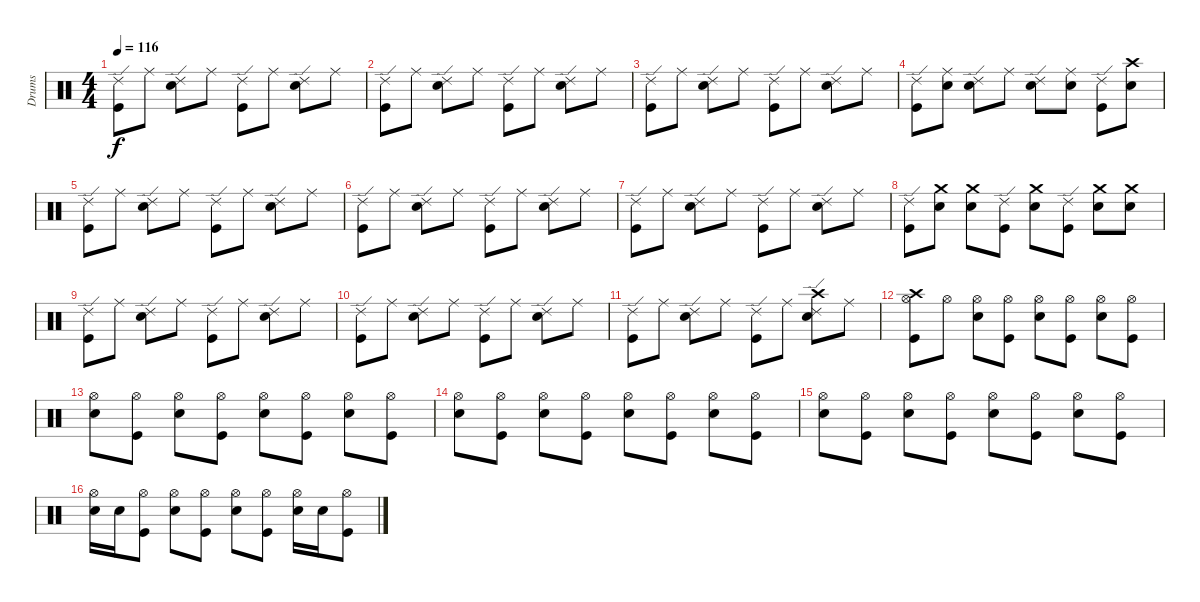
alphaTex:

\track ("Drums" "Drums") {instrument percussion}
\staff {score}
\articulation defaults
\ts (4 4)
\tempo 116
\clef neutral
\ks c
("Ride (edge) 2" "Kick (hit)").8{dy f} "Ride (middle)".8 ("Ride (edge) 2" "Electric Snare (hit)").8 "Ride (middle)".8 ("Ride (edge) 2" "Kick (hit)").8 "Ride (middle)".8 ("Ride (edge) 2" "Electric Snare (hit)").8 "Ride (middle)".8 |
("Ride (edge) 2" "Kick (hit)").8 "Ride (middle)".8 ("Ride (edge) 2" "Electric Snare (hit)").8 "Ride (middle)".8 ("Ride (edge) 2" "Kick (hit)").8 "Ride (middle)".8 ("Ride (edge) 2" "Electric Snare (hit)").8 "Ride (middle)".8 |
("Ride (edge) 2" "Kick (hit)").8 "Ride (middle)".8 ("Ride (edge) 2" "Electric Snare (hit)").8 "Ride (middle)".8 ("Ride (edge) 2" "Kick (hit)").8 "Ride (middle)".8 ("Ride (edge) 2" "Electric Snare (hit)").8 "Ride (middle)".8 |
("Ride (edge) 2" "Kick (hit)").8 ("Ride (middle)" "Electric Snare (hit)").8 ("Ride (edge) 2" "Electric Snare (hit)").8 "Ride (middle)".8 ("Ride (edge) 2" "Electric Snare (hit)").8 ("Ride (middle)" "Electric Snare (hit)").8 ("Ride (edge) 2" "Kick (hit)").8 ("Crash high (hit)" "Electric Snare (hit)").8 |
("Ride (edge) 2" "Kick (hit)").8 "Ride (middle)".8 ("Ride (edge) 2" "Electric Snare (hit)").8 "Ride (middle)".8 ("Ride (edge) 2" "Kick (hit)").8 "Ride (middle)".8 ("Ride (edge) 2" "Electric Snare (hit)").8 "Ride (middle)".8 |
("Ride (edge) 2" "Kick (hit)").8 "Ride (middle)".8 ("Ride (edge) 2" "Electric Snare (hit)").8 "Ride (middle)".8 ("Ride (edge) 2" "Kick (hit)").8 "Ride (middle)".8 ("Ride (edge) 2" "Electric Snare (hit)").8 "Ride (middle)".8 |
("Ride (edge) 2" "Kick (hit)").8 "Ride (middle)".8 ("Ride (edge) 2" "Electric Snare (hit)").8 "Ride (middle)".8 ("Ride (edge) 2" "Kick (hit)").8 "Ride (middle)".8 ("Ride (edge) 2" "Electric Snare (hit)").8 "Ride (middle)".8 |
("Ride (edge) 2" "Kick (hit)").8 ("Crash medium (hit)" "Electric Snare (hit)").8 ("Crash medium (hit)" "Electric Snare (hit)").8 ("Ride (edge) 2" "Kick (hit)").8 ("Crash medium (hit)" "Electric Snare (hit)").8 ("Ride (edge) 2" "Kick (hit)").8 ("Crash medium (hit)" "Electric Snare (hit)").8 ("Crash medium (hit)" "Electric Snare (hit)").8 |
("Ride (edge) 2" "Kick (hit)").8 "Ride (middle)".8 ("Ride (edge) 2" "Electric Snare (hit)").8 "Ride (middle)".8 ("Ride (edge) 2" "Kick (hit)").8 "Ride (middle)".8 ("Ride (edge) 2" "Electric Snare (hit)").8 "Ride (middle)".8 |
("Ride (edge) 2" "Kick (hit)").8 "Ride (middle)".8 ("Ride (edge) 2" "Electric Snare (hit)").8 "Ride (middle)".8 ("Ride (edge) 2" "Kick (hit)").8 "Ride (middle)".8 ("Ride (edge) 2" "Electric Snare (hit)").8 "Ride (middle)".8 |
("Ride (edge) 2" "Kick (hit)").8 "Ride (middle)".8 ("Ride (edge) 2" "Electric Snare (hit)").8 "Ride (middle)".8 ("Ride (edge) 2" "Kick (hit)").8 "Ride (middle)".8 ("Crash high (hit)" "Ride (edge) 2" "Electric Snare (hit)").8 "Ride (middle)".8 |
("Crash high (hit)" "Hi-Hat (open)" "Kick (hit)").8 "Hi-Hat (open)".8 ("Hi-Hat (open)" "Electric Snare (hit)").8 ("Hi-Hat (open)" "Kick (hit)").8 ("Hi-Hat (open)" "Electric Snare (hit)").8 ("Hi-Hat (open)" "Kick (hit)").8 ("Hi-Hat (open)" "Electric Snare (hit)").8 ("Hi-Hat (open)" "Kick (hit)").8 |
("Hi-Hat (open)" "Electric Snare (hit)").8 ("Hi-Hat (open)" "Kick (hit)").8 ("Hi-Hat (open)" "Electric Snare (hit)").8 ("Hi-Hat (open)" "Kick (hit)").8 ("Hi-Hat (open)" "Electric Snare (hit)").8 ("Hi-Hat (open)" "Kick (hit)").8 ("Hi-Hat (open)" "Electric Snare (hit)").8 ("Hi-Hat (open)" "Kick (hit)").8 |
("Hi-Hat (open)" "Electric Snare (hit)").8 ("Hi-Hat (open)" "Kick (hit)").8 ("Hi-Hat (open)" "Electric Snare (hit)").8 ("Hi-Hat (open)" "Kick (hit)").8 ("Hi-Hat (open)" "Electric Snare (hit)").8 ("Hi-Hat (open)" "Kick (hit)").8 ("Hi-Hat (open)" "Electric Snare (hit)").8 ("Hi-Hat (open)" "Kick (hit)").8 |
("Hi-Hat (open)" "Electric Snare (hit)").8 ("Hi-Hat (open)" "Kick (hit)").8 ("Hi-Hat (open)" "Electric Snare (hit)").8 ("Hi-Hat (open)" "Kick (hit)").8 ("Hi-Hat (open)" "Electric Snare (hit)").8 ("Hi-Hat (open)" "Kick (hit)").8 ("Hi-Hat (open)" "Electric Snare (hit)").8 ("Hi-Hat (open)" "Kick (hit)").8 |
("Hi-Hat (open)" "Electric Snare (hit)").16 "Electric Snare (hit)".16 ("Hi-Hat (open)" "Kick (hit)").8 ("Hi-Hat (open)" "Electric Snare (hit)").8 ("Hi-Hat (open)" "Kick (hit)").8 ("Hi-Hat (open)" "Electric Snare (hit)").8 ("Hi-Hat (open)" "Kick (hit)").8 ("Hi-Hat (open)" "Electric Snare (hit)").16 "Electric Snare (hit)".16 ("Hi-Hat (open)" "Kick (hit)").8
